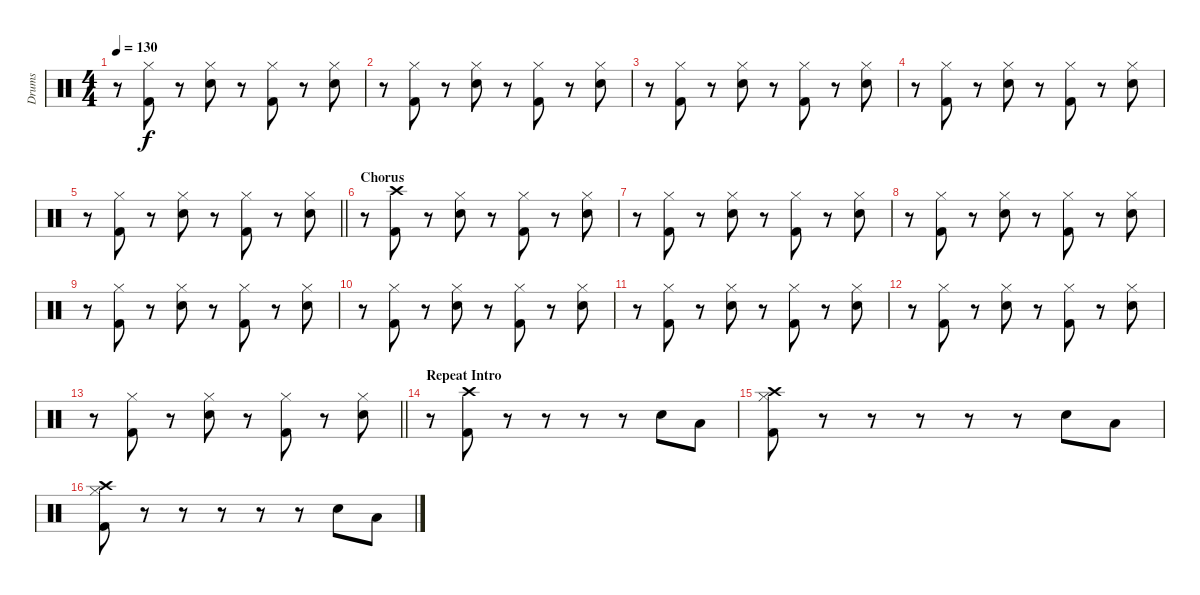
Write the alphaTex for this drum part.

\track ("Drums" "Drums") {instrument percussion}
\staff {score}
\articulation defaults
\ts (4 4)
\tempo 130
\clef neutral
\ks c
r.8{dy f} ("Hi-Hat (closed)" "Kick (hit) 2").8 r.8 ("Hi-Hat (closed)" "Snare (hit) 2").8 r.8 ("Hi-Hat (closed)" "Kick (hit) 2").8 r.8 ("Hi-Hat (closed)" "Snare (hit) 2").8 |
r.8 ("Hi-Hat (closed)" "Kick (hit) 2").8 r.8 ("Hi-Hat (closed)" "Snare (hit) 2").8 r.8 ("Hi-Hat (closed)" "Kick (hit) 2").8 r.8 ("Hi-Hat (closed)" "Snare (hit) 2").8 |
r.8 ("Hi-Hat (closed)" "Kick (hit) 2").8 r.8 ("Hi-Hat (closed)" "Snare (hit) 2").8 r.8 ("Hi-Hat (closed)" "Kick (hit) 2").8 r.8 ("Hi-Hat (closed)" "Snare (hit) 2").8 |
r.8 ("Hi-Hat (closed)" "Kick (hit) 2").8 r.8 ("Hi-Hat (closed)" "Snare (hit) 2").8 r.8 ("Hi-Hat (closed)" "Kick (hit) 2").8 r.8 ("Hi-Hat (closed)" "Snare (hit) 2").8 |
\barLineRight lightlight
r.8 ("Hi-Hat (closed)" "Kick (hit) 2").8 r.8 ("Hi-Hat (closed)" "Snare (hit) 2").8 r.8 ("Hi-Hat (closed)" "Kick (hit) 2").8 r.8 ("Hi-Hat (closed)" "Snare (hit) 2").8 |
\section ("" "Chorus")
r.8 ("Crash high (hit)" "Kick (hit) 2").8 r.8 ("Hi-Hat (closed)" "Snare (hit) 2").8 r.8 ("Hi-Hat (closed)" "Kick (hit) 2").8 r.8 ("Hi-Hat (closed)" "Snare (hit) 2").8 |
r.8 ("Hi-Hat (closed)" "Kick (hit) 2").8 r.8 ("Hi-Hat (closed)" "Snare (hit) 2").8 r.8 ("Hi-Hat (closed)" "Kick (hit) 2").8 r.8 ("Hi-Hat (closed)" "Snare (hit) 2").8 |
r.8 ("Hi-Hat (closed)" "Kick (hit) 2").8 r.8 ("Hi-Hat (closed)" "Snare (hit) 2").8 r.8 ("Hi-Hat (closed)" "Kick (hit) 2").8 r.8 ("Hi-Hat (closed)" "Snare (hit) 2").8 |
r.8 ("Hi-Hat (closed)" "Kick (hit) 2").8 r.8 ("Hi-Hat (closed)" "Snare (hit) 2").8 r.8 ("Hi-Hat (closed)" "Kick (hit) 2").8 r.8 ("Hi-Hat (closed)" "Snare (hit) 2").8 |
r.8 ("Hi-Hat (closed)" "Kick (hit) 2").8 r.8 ("Hi-Hat (closed)" "Snare (hit) 2").8 r.8 ("Hi-Hat (closed)" "Kick (hit) 2").8 r.8 ("Hi-Hat (closed)" "Snare (hit) 2").8 |
r.8 ("Hi-Hat (closed)" "Kick (hit) 2").8 r.8 ("Hi-Hat (closed)" "Snare (hit) 2").8 r.8 ("Hi-Hat (closed)" "Kick (hit) 2").8 r.8 ("Hi-Hat (closed)" "Snare (hit) 2").8 |
r.8 ("Hi-Hat (closed)" "Kick (hit) 2").8 r.8 ("Hi-Hat (closed)" "Snare (hit) 2").8 r.8 ("Hi-Hat (closed)" "Kick (hit) 2").8 r.8 ("Hi-Hat (closed)" "Snare (hit) 2").8 |
\barLineRight lightlight
r.8 ("Hi-Hat (closed)" "Kick (hit) 2").8 r.8 ("Hi-Hat (closed)" "Snare (hit) 2").8 r.8 ("Hi-Hat (closed)" "Kick (hit) 2").8 r.8 ("Hi-Hat (closed)" "Snare (hit) 2").8 |
\section ("" "Repeat Intro")
r.8 ("Crash high (hit)" "Kick (hit) 2").8 r.8 r.8 r.8 r.8 "Snare (hit) 2".8 "Low Tom (hit)".8 |
("Hi-Hat (closed)" "Crash high (hit)" "Kick (hit) 2").8 r.8 r.8 r.8 r.8 r.8 "Snare (hit) 2".8 "Low Tom (hit)".8 |
("Hi-Hat (closed)" "Crash high (hit)" "Kick (hit) 2").8 r.8 r.8 r.8 r.8 r.8 "Snare (hit) 2".8 "Low Tom (hit)".8
